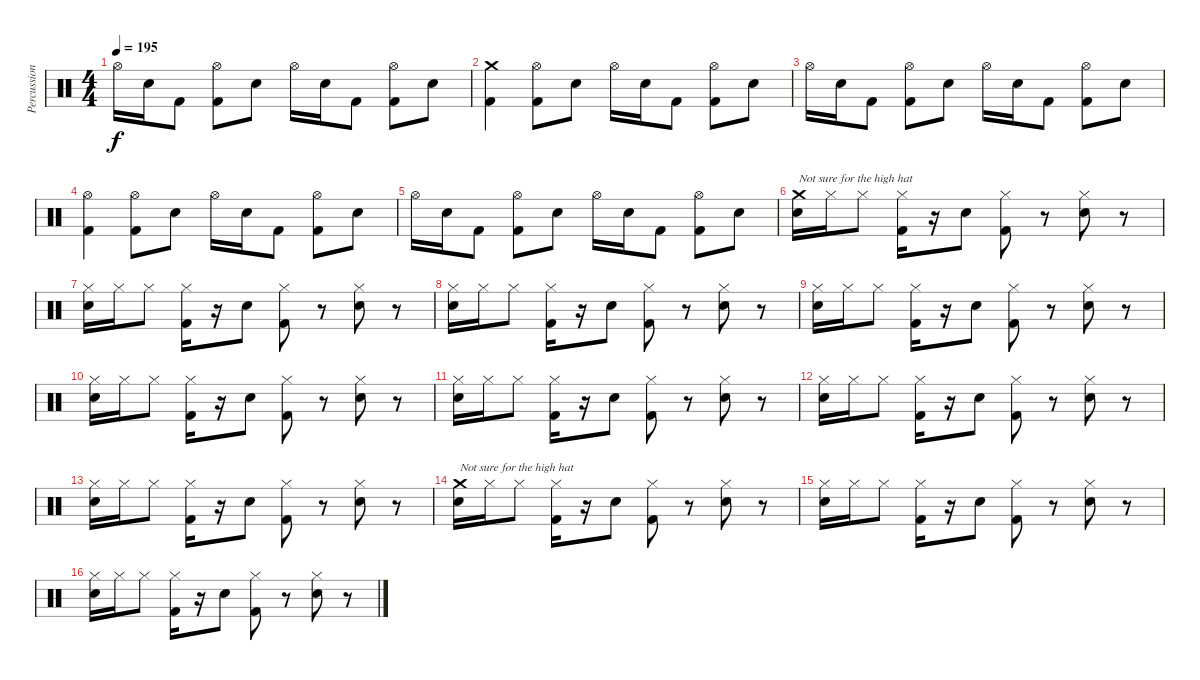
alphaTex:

\track ("Percussions" "Percussion") {instrument percussion}
\staff {score}
\articulation defaults
\ts (4 4)
\tempo 195
\clef neutral
\ks c "Hi-Hat (open)".16{dy f} "Electric Snare (hit)".16 "Kick (hit) 2".8
("Kick (hit) 2" "Hi-Hat (open)").8 "Electric Snare (hit)".8 "Hi-Hat (open)".16 "Electric Snare (hit)".16 "Kick (hit) 2".8 ("Kick (hit) 2" "Hi-Hat (open)").8 "Electric Snare (hit)".8 |
("Kick (hit) 2" "Crash medium (hit)").4 ("Kick (hit) 2" "Hi-Hat (open)").8 "Electric Snare (hit)".8 "Hi-Hat (open)".16 "Electric Snare (hit)".16 "Kick (hit) 2".8 ("Kick (hit) 2" "Hi-Hat (open)").8 "Electric Snare (hit)".8 |
"Hi-Hat (open)".16 "Electric Snare (hit)".16 "Kick (hit) 2".8 ("Kick (hit) 2" "Hi-Hat (open)").8 "Electric Snare (hit)".8 "Hi-Hat (open)".16 "Electric Snare (hit)".16 "Kick (hit) 2".8 ("Kick (hit) 2" "Hi-Hat (open)").8 "Electric Snare (hit)".8 |
("Kick (hit) 2" "Hi-Hat (open)").4 ("Kick (hit) 2" "Hi-Hat (open)").8 "Electric Snare (hit)".8 "Hi-Hat (open)".16 "Electric Snare (hit)".16 "Kick (hit) 2".8 ("Kick (hit) 2" "Hi-Hat (open)").8 "Electric Snare (hit)".8 |
"Hi-Hat (open)".16 "Electric Snare (hit)".16 "Kick (hit) 2".8 ("Kick (hit) 2" "Hi-Hat (open)").8 "Electric Snare (hit)".8 "Hi-Hat (open)".16 "Electric Snare (hit)".16 "Kick (hit) 2".8 ("Kick (hit) 2" "Hi-Hat (open)").8 "Electric Snare (hit)".8 |
("Electric Snare (hit)" "Crash medium (hit)").16{txt "Not sure for the high hat"} "Hi-Hat (closed)".16 "Hi-Hat (closed)".8 ("Kick (hit) 2" "Hi-Hat (closed)").16 r.16 "Electric Snare (hit)".8 ("Kick (hit) 2" "Hi-Hat (closed)").8 r.8 ("Electric Snare (hit)" "Hi-Hat (closed)").8 r.8 |
("Electric Snare (hit)" "Hi-Hat (closed)").16 "Hi-Hat (closed)".16 "Hi-Hat (closed)".8 ("Kick (hit) 2" "Hi-Hat (closed)").16 r.16 "Electric Snare (hit)".8 ("Kick (hit) 2" "Hi-Hat (closed)").8 r.8 ("Electric Snare (hit)" "Hi-Hat (closed)").8 r.8 |
("Electric Snare (hit)" "Hi-Hat (closed)").16 "Hi-Hat (closed)".16 "Hi-Hat (closed)".8 ("Kick (hit) 2" "Hi-Hat (closed)").16 r.16 "Electric Snare (hit)".8 ("Kick (hit) 2" "Hi-Hat (closed)").8 r.8 ("Electric Snare (hit)" "Hi-Hat (closed)").8 r.8 |
("Electric Snare (hit)" "Hi-Hat (closed)").16 "Hi-Hat (closed)".16 "Hi-Hat (closed)".8 ("Kick (hit) 2" "Hi-Hat (closed)").16 r.16 "Electric Snare (hit)".8 ("Kick (hit) 2" "Hi-Hat (closed)").8 r.8 ("Electric Snare (hit)" "Hi-Hat (closed)").8 r.8 |
("Electric Snare (hit)" "Hi-Hat (closed)").16 "Hi-Hat (closed)".16 "Hi-Hat (closed)".8 ("Kick (hit) 2" "Hi-Hat (closed)").16 r.16 "Electric Snare (hit)".8 ("Kick (hit) 2" "Hi-Hat (closed)").8 r.8 ("Electric Snare (hit)" "Hi-Hat (closed)").8 r.8 |
("Electric Snare (hit)" "Hi-Hat (closed)").16 "Hi-Hat (closed)".16 "Hi-Hat (closed)".8 ("Kick (hit) 2" "Hi-Hat (closed)").16 r.16 "Electric Snare (hit)".8 ("Kick (hit) 2" "Hi-Hat (closed)").8 r.8 ("Electric Snare (hit)" "Hi-Hat (closed)").8 r.8 |
("Electric Snare (hit)" "Hi-Hat (closed)").16 "Hi-Hat (closed)".16 "Hi-Hat (closed)".8 ("Kick (hit) 2" "Hi-Hat (closed)").16 r.16 "Electric Snare (hit)".8 ("Kick (hit) 2" "Hi-Hat (closed)").8 r.8 ("Electric Snare (hit)" "Hi-Hat (closed)").8 r.8 |
("Electric Snare (hit)" "Hi-Hat (closed)").16 "Hi-Hat (closed)".16 "Hi-Hat (closed)".8 ("Kick (hit) 2" "Hi-Hat (closed)").16 r.16 "Electric Snare (hit)".8 ("Kick (hit) 2" "Hi-Hat (closed)").8 r.8 ("Electric Snare (hit)" "Hi-Hat (closed)").8 r.8 |
("Electric Snare (hit)" "Crash medium (hit)").16{txt "Not sure for the high hat"} "Hi-Hat (closed)".16 "Hi-Hat (closed)".8 ("Kick (hit) 2" "Hi-Hat (closed)").16 r.16 "Electric Snare (hit)".8 ("Kick (hit) 2" "Hi-Hat (closed)").8 r.8 ("Electric Snare (hit)" "Hi-Hat (closed)").8 r.8 |
("Electric Snare (hit)" "Hi-Hat (closed)").16 "Hi-Hat (closed)".16 "Hi-Hat (closed)".8 ("Kick (hit) 2" "Hi-Hat (closed)").16 r.16 "Electric Snare (hit)".8 ("Kick (hit) 2" "Hi-Hat (closed)").8 r.8 ("Electric Snare (hit)" "Hi-Hat (closed)").8 r.8 |
("Electric Snare (hit)" "Hi-Hat (closed)").16 "Hi-Hat (closed)".16 "Hi-Hat (closed)".8 ("Kick (hit) 2" "Hi-Hat (closed)").16 r.16 "Electric Snare (hit)".8 ("Kick (hit) 2" "Hi-Hat (closed)").8 r.8 ("Electric Snare (hit)" "Hi-Hat (closed)").8 r.8
